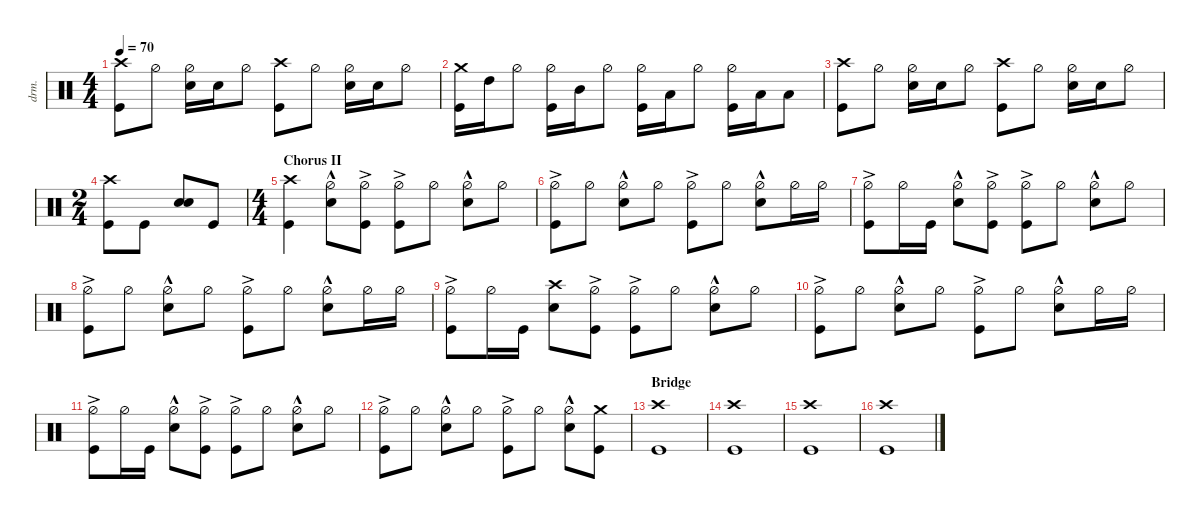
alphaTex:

\defaultSystemsLayout 4
\hideDynamics
\bracketExtendMode nobrackets
\otherSystemsTrackNameOrientation horizontal
\track ("Drums" "drm.") {defaultSystemsLayout 4 multiBarRest instrument percussion}
\staff {score}
\articulation defaults
\ts (4 4)
\tempo 70
\clef neutral
\ks c
("Crash high (hit)" "Kick (hit)").8{dy ff} "Hi-Hat (half)".8 ("Hi-Hat (half)" "Snare (hit) 2").16 "Snare (hit) 2".16 "Hi-Hat (half)".8 ("Crash high (hit)" "Kick (hit)").8 "Hi-Hat (half)".8 ("Hi-Hat (half)" "Snare (hit) 2").16 "Snare (hit) 2".16 "Hi-Hat (half)".8 |
("Crash medium (hit)" "Kick (hit)").16{dy f} "High Tom (hit)".16{dy ff} "Hi-Hat (half)".8{dy f} ("Kick (hit)" "Hi-Hat (half)").16 "Mid Tom (hit)".16{dy ff} "Hi-Hat (half)".8{dy f} ("Kick (hit)" "Hi-Hat (half)").16 "Low Tom (hit)".16{dy ff} "Hi-Hat (half)".8{dy f} ("Kick (hit)" "Hi-Hat (half)").16 "Low Tom (hit)".16{dy ff} "Low Tom (hit)".8 |
("Crash high (hit)" "Kick (hit)").8 "Hi-Hat (half)".8 ("Hi-Hat (half)" "Snare (hit) 2").16 "Snare (hit) 2".16 "Hi-Hat (half)".8 ("Crash high (hit)" "Kick (hit)").8 "Hi-Hat (half)".8 ("Hi-Hat (half)" "Snare (hit) 2").16 "Snare (hit) 2".16 "Hi-Hat (half)".8 |
\ts (2 4)
\beaming (8 2 2)
("Crash high (hit)" "Kick (hit)").8 "Kick (hit)".8 ("Snare (hit) 2" "Snare (hit) 2").8 "Kick (hit)".8 |
\ts (4 4)
\beaming (8 2 2 2 2)
\section ("" "Chorus II")
("Crash high (hit)" "Kick (hit)").4{dy f} ("Hi-Hat (half)"{hac} "Snare (hit) 2").8 ("Kick (hit)" "Hi-Hat (half)"{ac}).8 ("Kick (hit)" "Hi-Hat (half)"{ac}).8 "Hi-Hat (half)".8 ("Hi-Hat (half)"{hac} "Snare (hit) 2").8 "Hi-Hat (half)".8 |
("Kick (hit)" "Hi-Hat (half)"{ac}).8 "Hi-Hat (half)".8 ("Hi-Hat (half)"{hac} "Snare (hit) 2").8 "Hi-Hat (half)".8 ("Kick (hit)" "Hi-Hat (half)"{ac}).8 "Hi-Hat (half)".8 ("Hi-Hat (half)"{hac} "Snare (hit) 2").8 "Hi-Hat (half)".16 "Hi-Hat (half)".16 |
("Kick (hit)" "Hi-Hat (half)"{ac}).8 "Hi-Hat (half)".16 "Kick (hit)".16 ("Snare (hit) 2" "Hi-Hat (half)"{hac}).8 ("Kick (hit)" "Hi-Hat (half)"{ac}).8 ("Kick (hit)" "Hi-Hat (half)"{ac}).8 "Hi-Hat (half)".8 ("Snare (hit) 2" "Hi-Hat (half)"{hac}).8 "Hi-Hat (half)".8 |
("Kick (hit)" "Hi-Hat (half)"{ac}).8 "Hi-Hat (half)".8 ("Hi-Hat (half)"{hac} "Snare (hit) 2").8 "Hi-Hat (half)".8 ("Kick (hit)" "Hi-Hat (half)"{ac}).8 "Hi-Hat (half)".8 ("Hi-Hat (half)"{hac} "Snare (hit) 2").8 "Hi-Hat (half)".16 "Hi-Hat (half)".16 |
("Kick (hit)" "Hi-Hat (half)"{ac}).8 "Hi-Hat (half)".16 "Kick (hit)".16 ("Snare (hit) 2" "Crash high (hit)").8 ("Kick (hit)" "Hi-Hat (half)"{ac}).8 ("Kick (hit)" "Hi-Hat (half)"{ac}).8 "Hi-Hat (half)".8 ("Snare (hit) 2" "Hi-Hat (half)"{hac}).8 "Hi-Hat (half)".8 |
("Kick (hit)" "Hi-Hat (half)"{ac}).8 "Hi-Hat (half)".8 ("Hi-Hat (half)"{hac} "Snare (hit) 2").8 "Hi-Hat (half)".8 ("Kick (hit)" "Hi-Hat (half)"{ac}).8 "Hi-Hat (half)".8 ("Hi-Hat (half)"{hac} "Snare (hit) 2").8 "Hi-Hat (half)".16 "Hi-Hat (half)".16 |
("Kick (hit)" "Hi-Hat (half)"{ac}).8 "Hi-Hat (half)".16 "Kick (hit)".16 ("Snare (hit) 2" "Hi-Hat (half)"{hac}).8 ("Kick (hit)" "Hi-Hat (half)"{ac}).8 ("Kick (hit)" "Hi-Hat (half)"{ac}).8 "Hi-Hat (half)".8 ("Snare (hit) 2" "Hi-Hat (half)"{hac}).8 "Hi-Hat (half)".8 |
("Kick (hit)" "Hi-Hat (half)"{ac}).8 "Hi-Hat (half)".8 ("Hi-Hat (half)"{hac} "Snare (hit) 2").8 "Hi-Hat (half)".8 ("Kick (hit)" "Hi-Hat (half)"{ac}).8 "Hi-Hat (half)".8 ("Hi-Hat (half)"{hac} "Snare (hit) 2").8 ("Kick (hit)" "Crash medium (hit)").8 |
\section ("" "Bridge")
("Crash high (hit)" "Kick (hit)").1 |
("Crash high (hit)" "Kick (hit)").1 |
("Crash high (hit)" "Kick (hit)").1 |
("Crash high (hit)" "Kick (hit)").1
